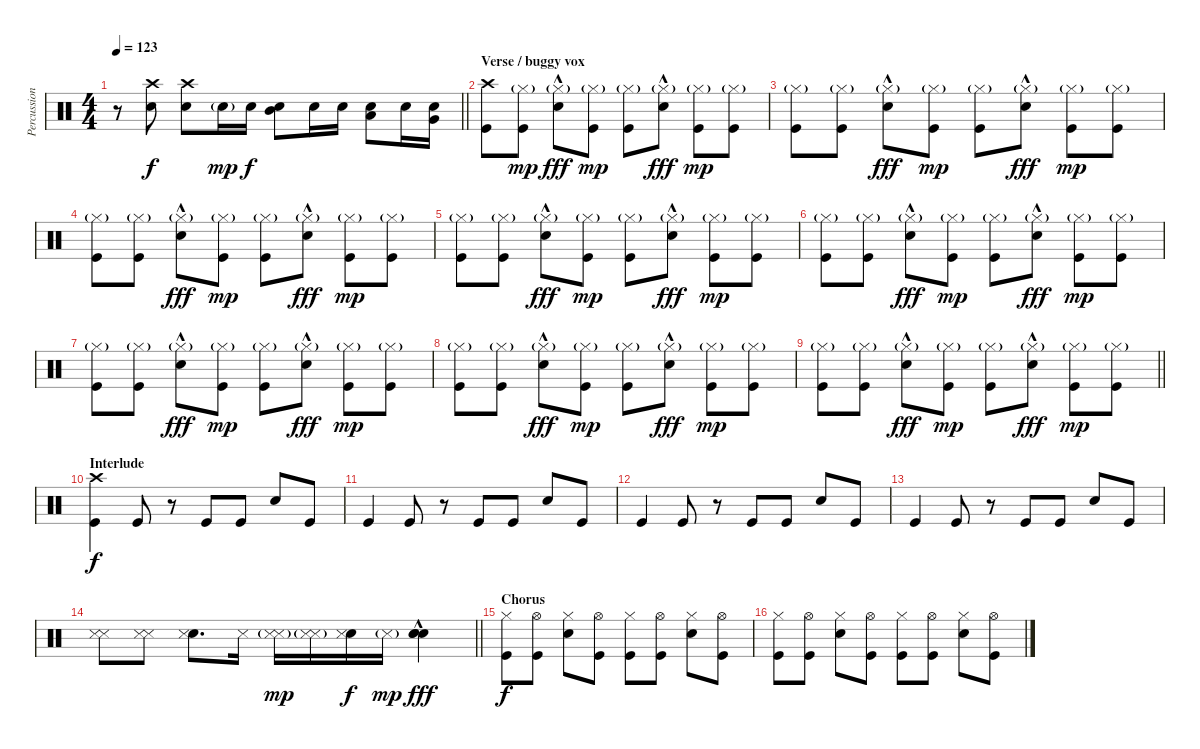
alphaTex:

\track ("Percussion" "Percussion") {instrument percussion}
\staff {score}
\articulation defaults
\ts (4 4)
\tempo 123
\clef neutral
\barLineRight lightlight
\ks c
r.8{dy f} ("Crash high (hit)" "Snare (hit) 2").8 ("Crash high (hit)" "Snare (hit) 2").8 "Snare (hit) 2"{g}.16{dy mp} "Snare (hit) 2".16{dy f} ("Snare (hit) 2" "Mid Tom (hit)").8 "Snare (hit) 2".16 "Snare (hit) 2".16 ("Snare (hit) 2" "Low Tom (hit)").8{beam Down} "Snare (hit) 2".16{beam Down} ("Snare (hit) 2" "Very Low Tom (hit)").16{beam Down} |
\section ("" "Verse / buggy vox")
("Crash high (hit)" "Kick (hit)").8 ("Hi-Hat (closed)"{g} "Kick (hit)").8{dy mp} ("Hi-Hat (closed)"{g} "Snare (hit) 2"{hac}).8{dy fff} ("Hi-Hat (closed)"{g} "Kick (hit)").8{dy mp} ("Hi-Hat (closed)"{g} "Kick (hit)").8 ("Hi-Hat (closed)"{g} "Snare (hit) 2"{hac}).8{dy fff} ("Hi-Hat (closed)"{g} "Kick (hit)").8{dy mp} ("Hi-Hat (closed)"{g} "Kick (hit)").8 |
("Hi-Hat (closed)"{g} "Kick (hit)").8 ("Hi-Hat (closed)"{g} "Kick (hit)").8 ("Hi-Hat (closed)"{g} "Snare (hit) 2"{hac}).8{dy fff} ("Hi-Hat (closed)"{g} "Kick (hit)").8{dy mp} ("Hi-Hat (closed)"{g} "Kick (hit)").8 ("Hi-Hat (closed)"{g} "Snare (hit) 2"{hac}).8{dy fff} ("Hi-Hat (closed)"{g} "Kick (hit)").8{dy mp} ("Hi-Hat (closed)"{g} "Kick (hit)").8 |
("Hi-Hat (closed)"{g} "Kick (hit)").8 ("Hi-Hat (closed)"{g} "Kick (hit)").8 ("Hi-Hat (closed)"{g} "Snare (hit) 2"{hac}).8{dy fff} ("Hi-Hat (closed)"{g} "Kick (hit)").8{dy mp} ("Hi-Hat (closed)"{g} "Kick (hit)").8 ("Hi-Hat (closed)"{g} "Snare (hit) 2"{hac}).8{dy fff} ("Hi-Hat (closed)"{g} "Kick (hit)").8{dy mp} ("Hi-Hat (closed)"{g} "Kick (hit)").8 |
("Hi-Hat (closed)"{g} "Kick (hit)").8 ("Hi-Hat (closed)"{g} "Kick (hit)").8 ("Hi-Hat (closed)"{g} "Snare (hit) 2"{hac}).8{dy fff} ("Hi-Hat (closed)"{g} "Kick (hit)").8{dy mp} ("Hi-Hat (closed)"{g} "Kick (hit)").8 ("Hi-Hat (closed)"{g} "Snare (hit) 2"{hac}).8{dy fff} ("Hi-Hat (closed)"{g} "Kick (hit)").8{dy mp} ("Hi-Hat (closed)"{g} "Kick (hit)").8 |
("Hi-Hat (closed)"{g} "Kick (hit)").8 ("Hi-Hat (closed)"{g} "Kick (hit)").8 ("Hi-Hat (closed)"{g} "Snare (hit) 2"{hac}).8{dy fff} ("Hi-Hat (closed)"{g} "Kick (hit)").8{dy mp} ("Hi-Hat (closed)"{g} "Kick (hit)").8 ("Hi-Hat (closed)"{g} "Snare (hit) 2"{hac}).8{dy fff} ("Hi-Hat (closed)"{g} "Kick (hit)").8{dy mp} ("Hi-Hat (closed)"{g} "Kick (hit)").8 |
("Hi-Hat (closed)"{g} "Kick (hit)").8 ("Hi-Hat (closed)"{g} "Kick (hit)").8 ("Hi-Hat (closed)"{g} "Snare (hit) 2"{hac}).8{dy fff} ("Hi-Hat (closed)"{g} "Kick (hit)").8{dy mp} ("Hi-Hat (closed)"{g} "Kick (hit)").8 ("Hi-Hat (closed)"{g} "Snare (hit) 2"{hac}).8{dy fff} ("Hi-Hat (closed)"{g} "Kick (hit)").8{dy mp} ("Hi-Hat (closed)"{g} "Kick (hit)").8 |
("Hi-Hat (closed)"{g} "Kick (hit)").8 ("Hi-Hat (closed)"{g} "Kick (hit)").8 ("Hi-Hat (closed)"{g} "Snare (hit) 2"{hac}).8{dy fff} ("Hi-Hat (closed)"{g} "Kick (hit)").8{dy mp} ("Hi-Hat (closed)"{g} "Kick (hit)").8 ("Hi-Hat (closed)"{g} "Snare (hit) 2"{hac}).8{dy fff} ("Hi-Hat (closed)"{g} "Kick (hit)").8{dy mp} ("Hi-Hat (closed)"{g} "Kick (hit)").8 |
\barLineRight lightlight
("Hi-Hat (closed)"{g} "Kick (hit)").8 ("Hi-Hat (closed)"{g} "Kick (hit)").8 ("Hi-Hat (closed)"{g} "Snare (hit) 2"{hac}).8{dy fff} ("Hi-Hat (closed)"{g} "Kick (hit)").8{dy mp} ("Hi-Hat (closed)"{g} "Kick (hit)").8 ("Hi-Hat (closed)"{g} "Snare (hit) 2"{hac}).8{dy fff} ("Hi-Hat (closed)"{g} "Kick (hit)").8{dy mp} ("Hi-Hat (closed)"{g} "Kick (hit)").8 |
\section ("" "Interlude")
("Crash high (hit)" "Kick (hit)").4{dy f} "Kick (hit)".8 r.8 "Kick (hit)".8 "Kick (hit)".8 "Snare (hit) 2".8 "Kick (hit)".8 |
"Kick (hit)".4 "Kick (hit)".8 r.8 "Kick (hit)".8 "Kick (hit)".8 "Snare (hit) 2".8 "Kick (hit)".8 |
"Kick (hit)".4 "Kick (hit)".8 r.8 "Kick (hit)".8 "Kick (hit)".8 "Snare (hit) 2".8 "Kick (hit)".8 |
"Kick (hit)".4 "Kick (hit)".8 r.8 "Kick (hit)".8 "Kick (hit)".8 "Snare (hit) 2".8 "Kick (hit)".8 |
\barLineRight lightlight
("Snare (side stick) 3" "Metronome (hit)").8 ("Snare (side stick) 3" "Metronome (hit)").8 ("Snare (hit) 2" "Metronome (hit)").8{d} "Metronome (hit)".16 ("Snare (side stick) 3"{g} "Metronome (hit)").16{dy mp} ("Snare (side stick) 3" "Metronome (hit)"{g}).16 ("Snare (hit) 2" "Metronome (hit)").16{dy f} "Metronome (hit)"{g}.16{dy mp} ("Snare (hit) 2"{hac} "Snare (hit) 2"{hac} "Snare (hit) 2"{hac}).4{dy fff} |
\section ("" "Chorus")
("Hi-Hat (closed)" "Kick (hit)").8{dy f} ("Hi-Hat (open)" "Kick (hit)").8 ("Hi-Hat (closed)" "Snare (hit) 2").8 ("Hi-Hat (open)" "Kick (hit)").8 ("Hi-Hat (closed)" "Kick (hit)").8 ("Hi-Hat (open)" "Kick (hit)").8 ("Hi-Hat (closed)" "Snare (hit) 2").8 ("Hi-Hat (open)" "Kick (hit)").8 |
("Hi-Hat (closed)" "Kick (hit)").8 ("Hi-Hat (open)" "Kick (hit)").8 ("Hi-Hat (closed)" "Snare (hit) 2").8 ("Hi-Hat (open)" "Kick (hit)").8 ("Hi-Hat (closed)" "Kick (hit)").8 ("Hi-Hat (open)" "Kick (hit)").8 ("Hi-Hat (closed)" "Snare (hit) 2").8 ("Hi-Hat (open)" "Kick (hit)").8
